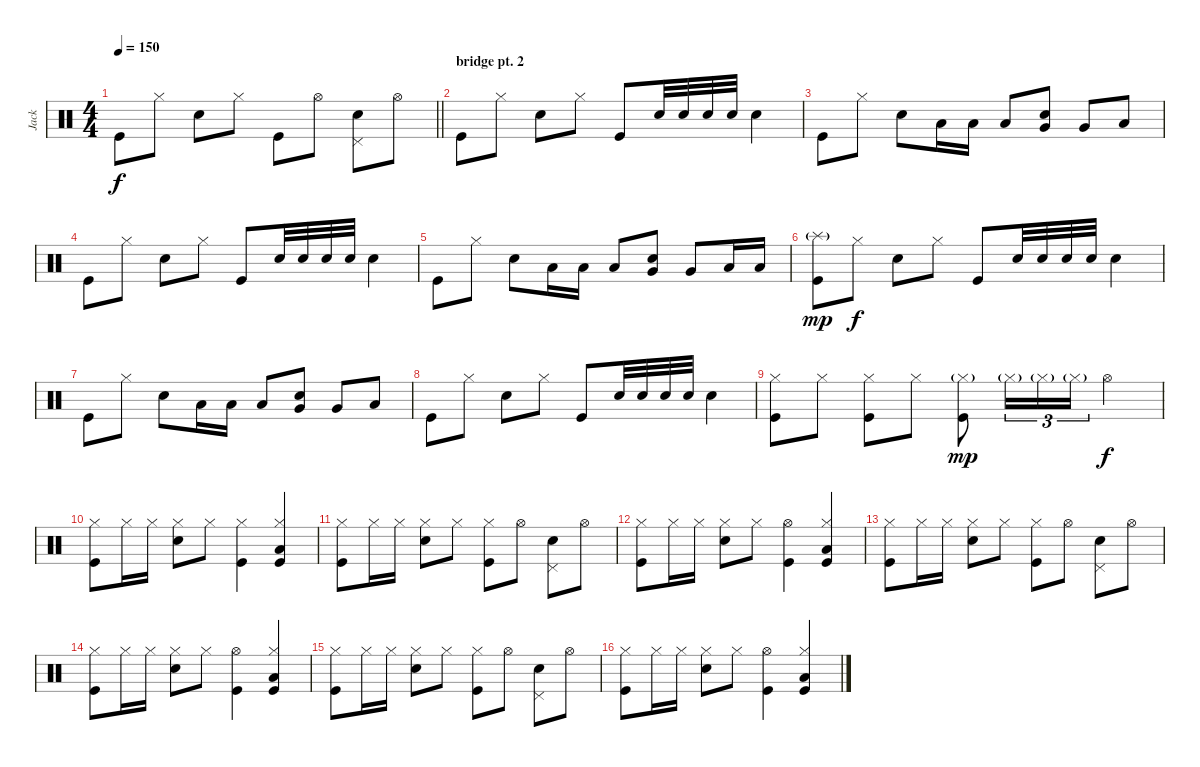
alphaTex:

\track ("Jack" "Jack") {instrument percussion}
\staff {score}
\articulation defaults
\ts (4 4)
\tempo 150
\clef neutral
\barLineRight lightlight
\ks c "Kick (hit)".8{dy f} "Hi-Hat (closed)".8 "Electric Snare (hit)".8 "Hi-Hat (closed)".8 "Kick (hit)".8 "Hi-Hat (open)".8
("Pedal Hi-Hat (hit)" "Electric Snare (hit)").8 "Hi-Hat (open)".8 |
\section ("" "bridge pt. 2")
"Kick (hit)".8 "Hi-Hat (closed)".8 "Electric Snare (hit)".8 "Hi-Hat (closed)".8 "Kick (hit)".8 "Electric Snare (hit)".32 "Electric Snare (hit)".32 "Electric Snare (hit)".32 "Electric Snare (hit)".32 "Electric Snare (hit)".4 |
"Kick (hit)".8 "Hi-Hat (closed)".8 "Electric Snare (hit)".8 "Low Tom (hit)".16 "Low Tom (hit)".16 "Low Tom (hit)".8 ("Very Low Tom (hit)" "Electric Snare (hit)").8 "Very Low Tom (hit)".8 "Low Floor Tom (hit)".8 |
"Kick (hit)".8 "Hi-Hat (closed)".8 "Electric Snare (hit)".8 "Hi-Hat (closed)".8 "Kick (hit)".8 "Electric Snare (hit)".32 "Electric Snare (hit)".32 "Electric Snare (hit)".32 "Electric Snare (hit)".32 "Electric Snare (hit)".4 |
"Kick (hit)".8 "Hi-Hat (closed)".8 "Electric Snare (hit)".8 "Low Tom (hit)".16 "Low Tom (hit)".16 "Low Tom (hit)".8 ("Very Low Tom (hit)" "Electric Snare (hit)").8 "Very Low Tom (hit)".8 "Low Floor Tom (hit)".16 "Low Floor Tom (hit)".16 |
("Splash (hit)"{g} "Kick (hit)").8{dy mp} "Hi-Hat (closed)".8{dy f} "Electric Snare (hit)".8 "Hi-Hat (closed)".8 "Kick (hit)".8 "Electric Snare (hit)".32 "Electric Snare (hit)".32 "Electric Snare (hit)".32 "Electric Snare (hit)".32 "Electric Snare (hit)".4 |
"Kick (hit)".8 "Hi-Hat (closed)".8 "Electric Snare (hit)".8 "Low Tom (hit)".16 "Low Tom (hit)".16 "Low Tom (hit)".8 ("Very Low Tom (hit)" "Electric Snare (hit)").8 "Very Low Tom (hit)".8 "Low Floor Tom (hit)".8 |
"Kick (hit)".8 "Hi-Hat (closed)".8 "Electric Snare (hit)".8 "Hi-Hat (closed)".8 "Kick (hit)".8 "Electric Snare (hit)".32 "Electric Snare (hit)".32 "Electric Snare (hit)".32 "Electric Snare (hit)".32 "Electric Snare (hit)".4 |
("Hi-Hat (closed)" "Kick (hit)").8 "Hi-Hat (closed)".8 ("Hi-Hat (closed)" "Kick (hit)").8 "Hi-Hat (closed)".8 ("Hi-Hat (closed)"{g} "Kick (hit)").8{dy mp} "Hi-Hat (closed)"{g}.16{tu (3 2)} "Hi-Hat (closed)"{g}.16{tu (3 2)} "Hi-Hat (closed)"{g}.16{tu (3 2)} "Hi-Hat (open)".4{dy f} |
("Hi-Hat (closed)" "Kick (hit)").8 "Hi-Hat (closed)".16 "Hi-Hat (closed)".16 ("Hi-Hat (closed)" "Electric Snare (hit)").8 "Hi-Hat (closed)".8 ("Hi-Hat (closed)" "Kick (hit)").4 ("Hi-Hat (closed)" "Low Floor Tom (hit)" "Kick (hit)").4 |
("Hi-Hat (closed)" "Kick (hit)").8 "Hi-Hat (closed)".16 "Hi-Hat (closed)".16 ("Hi-Hat (closed)" "Electric Snare (hit)").8 "Hi-Hat (closed)".8 ("Hi-Hat (closed)" "Kick (hit)").8 "Hi-Hat (open)".8 ("Pedal Hi-Hat (hit)" "Electric Snare (hit)").8 "Hi-Hat (open)".8 |
("Hi-Hat (closed)" "Kick (hit)").8 "Hi-Hat (closed)".16 "Hi-Hat (closed)".16 ("Hi-Hat (closed)" "Electric Snare (hit)").8 "Hi-Hat (closed)".8 ("Hi-Hat (open)" "Kick (hit)").4 ("Hi-Hat (closed)" "Low Floor Tom (hit)" "Kick (hit)").4 |
("Hi-Hat (closed)" "Kick (hit)").8 "Hi-Hat (closed)".16 "Hi-Hat (closed)".16 ("Hi-Hat (closed)" "Electric Snare (hit)").8 "Hi-Hat (closed)".8 ("Hi-Hat (closed)" "Kick (hit)").8 "Hi-Hat (open)".8 ("Pedal Hi-Hat (hit)" "Electric Snare (hit)").8 "Hi-Hat (open)".8 |
("Hi-Hat (closed)" "Kick (hit)").8 "Hi-Hat (closed)".16 "Hi-Hat (closed)".16 ("Hi-Hat (closed)" "Electric Snare (hit)").8 "Hi-Hat (closed)".8 ("Hi-Hat (open)" "Kick (hit)").4 ("Hi-Hat (closed)" "Low Floor Tom (hit)" "Kick (hit)").4 |
("Hi-Hat (closed)" "Kick (hit)").8 "Hi-Hat (closed)".16 "Hi-Hat (closed)".16 ("Hi-Hat (closed)" "Electric Snare (hit)").8 "Hi-Hat (closed)".8 ("Hi-Hat (closed)" "Kick (hit)").8 "Hi-Hat (open)".8 ("Pedal Hi-Hat (hit)" "Electric Snare (hit)").8 "Hi-Hat (open)".8 |
("Hi-Hat (closed)" "Kick (hit)").8 "Hi-Hat (closed)".16 "Hi-Hat (closed)".16 ("Hi-Hat (closed)" "Electric Snare (hit)").8 "Hi-Hat (closed)".8 ("Hi-Hat (open)" "Kick (hit)").4 ("Hi-Hat (closed)" "Low Floor Tom (hit)" "Kick (hit)").4
